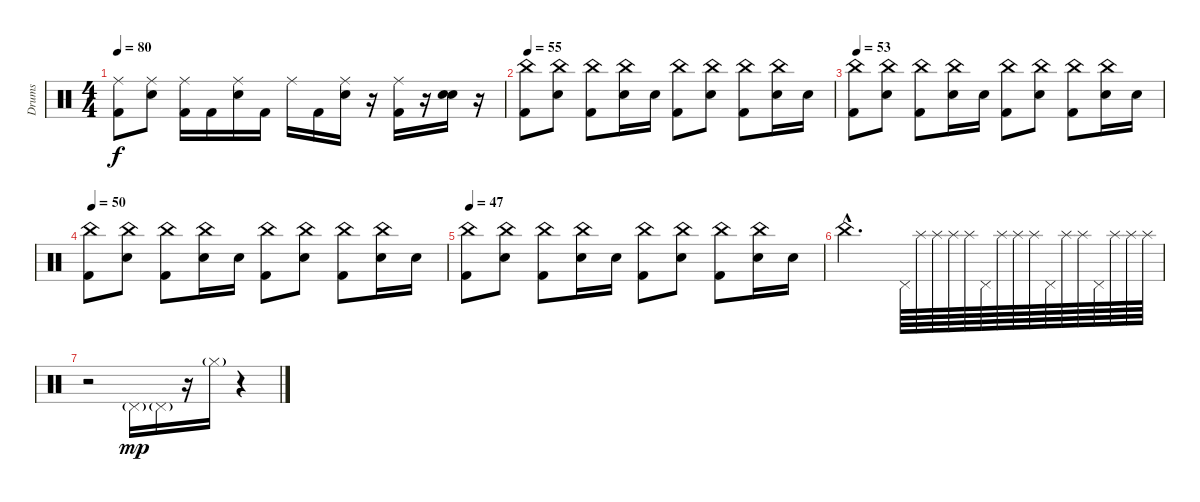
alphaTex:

\track ("Drums" "Drums") {instrument percussion}
\staff {score}
\articulation defaults
\ts (4 4)
\tempo 80
\clef neutral
\ks c
("Ride (middle)" "Kick (hit) 2").8{dy f} ("Ride (middle)" "Electric Snare (hit)").8 ("Ride (middle)" "Kick (hit) 2").16 "Kick (hit) 2".16 ("Ride (middle)" "Electric Snare (hit)").16 "Kick (hit) 2".16 "Ride (middle)".16 "Kick (hit) 2".16 ("Ride (middle)" "Electric Snare (hit)").16 r.16 ("Ride (middle)" "Kick (hit) 2").16 r.16 ("Electric Snare (hit)" "Snare (hit) 2").16 r.16 |
\tempo 55
("China (hit)" "Kick (hit) 2").8 ("China (hit)" "Electric Snare (hit)").8 ("China (hit)" "Kick (hit) 2").8 ("China (hit)" "Electric Snare (hit)").16 "Electric Snare (hit)".16 ("China (hit)" "Kick (hit) 2").8 ("China (hit)" "Electric Snare (hit)").8 ("China (hit)" "Kick (hit) 2").8 ("China (hit)" "Electric Snare (hit)").16 "Electric Snare (hit)".16 |
\tempo 53
("China (hit)" "Kick (hit) 2").8 ("China (hit)" "Electric Snare (hit)").8 ("China (hit)" "Kick (hit) 2").8 ("China (hit)" "Electric Snare (hit)").16 "Electric Snare (hit)".16 ("China (hit)" "Kick (hit) 2").8 ("China (hit)" "Electric Snare (hit)").8 ("China (hit)" "Kick (hit) 2").8 ("China (hit)" "Electric Snare (hit)").16 "Electric Snare (hit)".16 |
\tempo 50
("China (hit)" "Kick (hit) 2").8 ("China (hit)" "Electric Snare (hit)").8 ("China (hit)" "Kick (hit) 2").8 ("China (hit)" "Electric Snare (hit)").16 "Electric Snare (hit)".16 ("China (hit)" "Kick (hit) 2").8 ("China (hit)" "Electric Snare (hit)").8 ("China (hit)" "Kick (hit) 2").8 ("China (hit)" "Electric Snare (hit)").16 "Electric Snare (hit)".16 |
\tempo 47
("China (hit)" "Kick (hit) 2").8 ("China (hit)" "Electric Snare (hit)").8 ("China (hit)" "Kick (hit) 2").8 ("China (hit)" "Electric Snare (hit)").16 "Electric Snare (hit)".16 ("China (hit)" "Kick (hit) 2").8 ("China (hit)" "Electric Snare (hit)").8 ("China (hit)" "Kick (hit) 2").8 ("China (hit)" "Electric Snare (hit)").16 "Electric Snare (hit)".16 |
"China (hit)"{hac}.2{d} "Pedal Hi-Hat (hit)".64 "Splash (hit)".64 "Splash (hit)".64 "Splash (hit)".64 "Splash (hit)".64 "Pedal Hi-Hat (hit)".64 "Splash (hit)".64 "Splash (hit)".64 "Splash (hit)".64 "Pedal Hi-Hat (hit)".64 "Splash (hit)".64 "Splash (hit)".64 "Pedal Hi-Hat (hit)".64 "Splash (hit)".64 "Splash (hit)".64 "Splash (hit)".64 |
r.2 "Pedal Hi-Hat (hit)"{g}.16{dy mp} "Pedal Hi-Hat (hit)"{g}.16 r.16 "Hi-Hat (closed)"{g}.16 r.4
